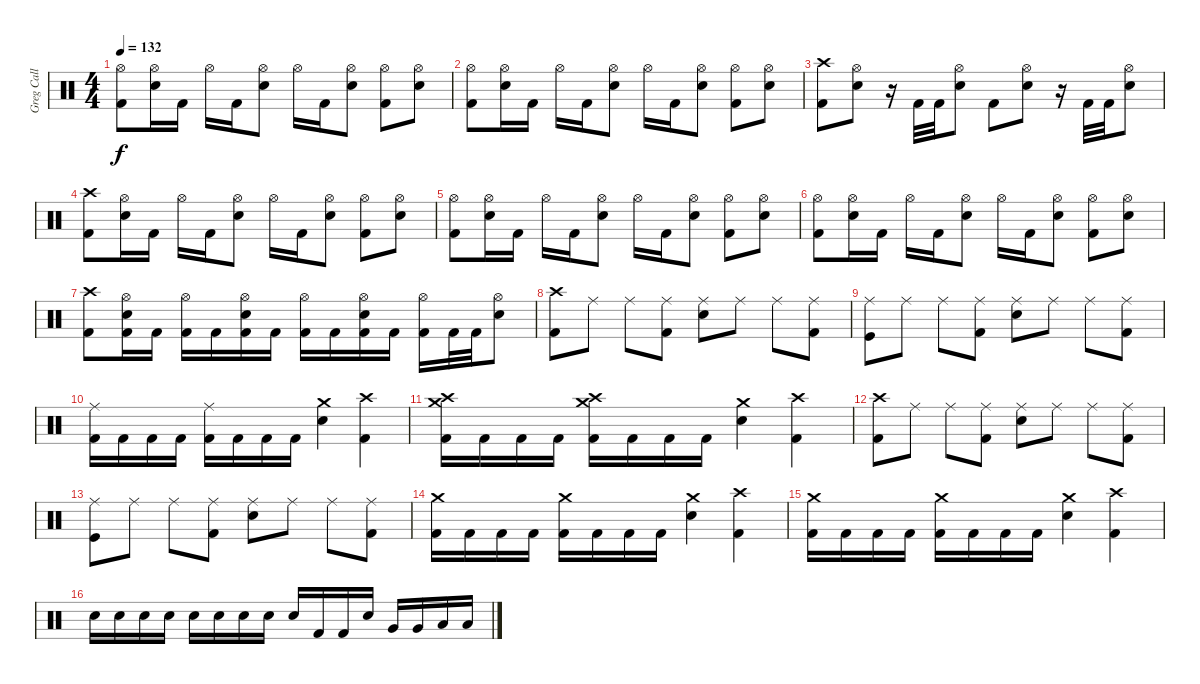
\track ("Greg Call (Drums)" "Greg Call ") {instrument percussion}
\staff {score}
\articulation defaults
\ts (4 4)
\tempo 132
\clef neutral
\ks c
("Hi-Hat (open)" "Kick (hit) 2").8{dy f} ("Hi-Hat (open)" "Snare (hit) 2").16 "Kick (hit) 2".16 "Hi-Hat (open)".16 "Kick (hit) 2".16 ("Hi-Hat (open)" "Snare (hit) 2").8 "Hi-Hat (open)".16 "Kick (hit) 2".16 ("Hi-Hat (open)" "Snare (hit) 2").8 ("Hi-Hat (open)" "Kick (hit) 2").8 ("Hi-Hat (open)" "Snare (hit) 2").8 |
("Hi-Hat (open)" "Kick (hit) 2").8 ("Hi-Hat (open)" "Snare (hit) 2").16 "Kick (hit) 2".16 "Hi-Hat (open)".16 "Kick (hit) 2".16 ("Hi-Hat (open)" "Snare (hit) 2").8 "Hi-Hat (open)".16 "Kick (hit) 2".16 ("Hi-Hat (open)" "Snare (hit) 2").8 ("Hi-Hat (open)" "Kick (hit) 2").8 ("Hi-Hat (open)" "Snare (hit) 2").8 |
("Crash high (hit)" "Kick (hit) 2").8 ("Hi-Hat (open)" "Snare (hit) 2").8 r.16 "Kick (hit) 2".32 "Kick (hit) 2".32 ("Hi-Hat (open)" "Snare (hit) 2").8 "Kick (hit) 2".8 ("Hi-Hat (open)" "Snare (hit) 2").8 r.16 "Kick (hit) 2".32 "Kick (hit) 2".32 ("Hi-Hat (open)" "Snare (hit) 2").8 |
("Crash high (hit)" "Kick (hit) 2").8 ("Hi-Hat (open)" "Snare (hit) 2").16 "Kick (hit) 2".16 "Hi-Hat (open)".16 "Kick (hit) 2".16 ("Hi-Hat (open)" "Snare (hit) 2").8 "Hi-Hat (open)".16 "Kick (hit) 2".16 ("Hi-Hat (open)" "Snare (hit) 2").8 ("Hi-Hat (open)" "Kick (hit) 2").8 ("Hi-Hat (open)" "Snare (hit) 2").8 |
("Hi-Hat (open)" "Kick (hit) 2").8 ("Hi-Hat (open)" "Snare (hit) 2").16 "Kick (hit) 2".16 "Hi-Hat (open)".16 "Kick (hit) 2".16 ("Hi-Hat (open)" "Snare (hit) 2").8 "Hi-Hat (open)".16 "Kick (hit) 2".16 ("Hi-Hat (open)" "Snare (hit) 2").8 ("Hi-Hat (open)" "Kick (hit) 2").8 ("Hi-Hat (open)" "Snare (hit) 2").8 |
("Hi-Hat (open)" "Kick (hit) 2").8 ("Hi-Hat (open)" "Snare (hit) 2").16 "Kick (hit) 2".16 "Hi-Hat (open)".16 "Kick (hit) 2".16 ("Hi-Hat (open)" "Snare (hit) 2").8 "Hi-Hat (open)".16 "Kick (hit) 2".16 ("Hi-Hat (open)" "Snare (hit) 2").8 ("Hi-Hat (open)" "Kick (hit) 2").8 ("Hi-Hat (open)" "Snare (hit) 2").8 |
("Crash high (hit)" "Kick (hit) 2").8 ("Kick (hit) 2" "Hi-Hat (open)" "Snare (hit) 2").16 "Kick (hit) 2".16 ("Hi-Hat (open)" "Kick (hit) 2").16 "Kick (hit) 2".16 ("Kick (hit) 2" "Hi-Hat (open)" "Snare (hit) 2").16 "Kick (hit) 2".16 ("Hi-Hat (open)" "Kick (hit) 2").16 "Kick (hit) 2".16 ("Kick (hit) 2" "Hi-Hat (open)" "Snare (hit) 2").16 "Kick (hit) 2".16 ("Hi-Hat (open)" "Kick (hit) 2").16 "Kick (hit) 2".32 "Kick (hit) 2".32 ("Hi-Hat (open)" "Snare (hit) 2").8 |
("Crash high (hit)" "Kick (hit) 2").8 "Ride (middle)".8 "Ride (middle)".8 ("Ride (middle)" "Kick (hit) 2").8 ("Ride (middle)" "Snare (hit) 2").8 "Ride (middle)".8 "Ride (middle)".8 ("Ride (middle)" "Kick (hit) 2").8 |
("Ride (middle)" "Kick (hit)").8 "Ride (middle)".8 "Ride (middle)".8 ("Ride (middle)" "Kick (hit) 2").8 ("Ride (middle)" "Snare (hit) 2").8 "Ride (middle)".8 "Ride (middle)".8 ("Ride (middle)" "Kick (hit) 2").8 |
("Ride (middle)" "Kick (hit) 2").16 "Kick (hit) 2".16 "Kick (hit) 2".16 "Kick (hit) 2".16 ("Ride (middle)" "Kick (hit) 2").16 "Kick (hit) 2".16 "Kick (hit) 2".16 "Kick (hit) 2".16 ("Crash medium (hit)" "Snare (hit) 2").4 ("Crash high (hit)" "Kick (hit) 2").4 |
("Crash high (hit)" "Crash medium (hit)" "Kick (hit) 2").16 "Kick (hit) 2".16 "Kick (hit) 2".16 "Kick (hit) 2".16 ("Crash high (hit)" "Crash medium (hit)" "Kick (hit) 2").16 "Kick (hit) 2".16 "Kick (hit) 2".16 "Kick (hit) 2".16 ("Crash medium (hit)" "Snare (hit) 2").4 ("Crash high (hit)" "Kick (hit) 2").4 |
("Crash high (hit)" "Kick (hit) 2").8 "Ride (middle)".8 "Ride (middle)".8 ("Ride (middle)" "Kick (hit) 2").8 ("Ride (middle)" "Snare (hit) 2").8 "Ride (middle)".8 "Ride (middle)".8 ("Ride (middle)" "Kick (hit) 2").8 |
("Ride (middle)" "Kick (hit)").8 "Ride (middle)".8 "Ride (middle)".8 ("Ride (middle)" "Kick (hit) 2").8 ("Ride (middle)" "Snare (hit) 2").8 "Ride (middle)".8 "Ride (middle)".8 ("Ride (middle)" "Kick (hit) 2").8 |
("Crash medium (hit)" "Kick (hit) 2").16 "Kick (hit) 2".16 "Kick (hit) 2".16 "Kick (hit) 2".16 ("Crash medium (hit)" "Kick (hit) 2").16 "Kick (hit) 2".16 "Kick (hit) 2".16 "Kick (hit) 2".16 ("Crash medium (hit)" "Snare (hit) 2").4 ("Crash high (hit)" "Kick (hit) 2").4 |
("Crash medium (hit)" "Kick (hit) 2").16 "Kick (hit) 2".16 "Kick (hit) 2".16 "Kick (hit) 2".16 ("Crash medium (hit)" "Kick (hit) 2").16 "Kick (hit) 2".16 "Kick (hit) 2".16 "Kick (hit) 2".16 ("Crash medium (hit)" "Snare (hit) 2").4 ("Crash high (hit)" "Kick (hit) 2").4 |
"Snare (hit) 2".16 "Snare (hit) 2".16 "Snare (hit) 2".16 "Snare (hit) 2".16 "Snare (hit) 2".16 "Snare (hit) 2".16 "Snare (hit) 2".16 "Snare (hit) 2".16 "Snare (hit) 2".16 "Kick (hit) 2".16 "Kick (hit) 2".16 "Snare (hit) 2".16 "Very Low Tom (hit)".16 "Very Low Tom (hit)".16 "Low Floor Tom (hit)".16 "Low Floor Tom (hit)".16
